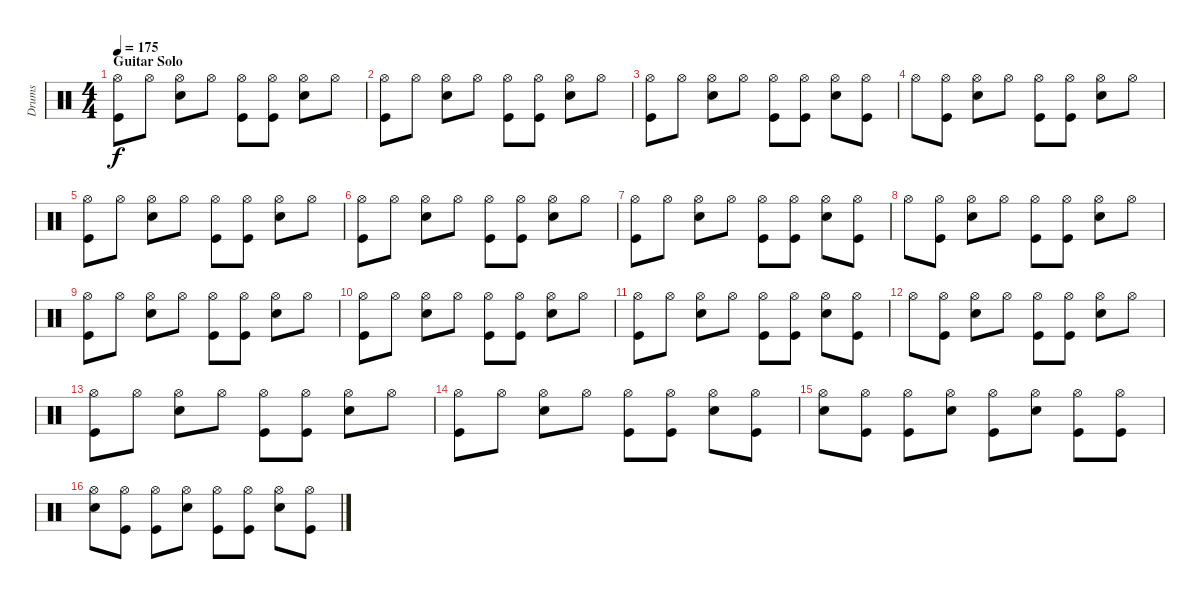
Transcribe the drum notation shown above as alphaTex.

\track ("Drums" "Drums") {instrument percussion}
\staff {score}
\articulation defaults
\ts (4 4)
\section ("" "Guitar Solo")
\tempo 175
\clef neutral
\ks c
("Hi-Hat (open)" "Kick (hit)").8{dy f} "Hi-Hat (open)".8 ("Hi-Hat (open)" "Snare (hit) 2").8 "Hi-Hat (open)".8 ("Hi-Hat (open)" "Kick (hit)").8 ("Hi-Hat (open)" "Kick (hit)").8 ("Hi-Hat (open)" "Snare (hit) 2").8 "Hi-Hat (open)".8 |
("Hi-Hat (open)" "Kick (hit)").8 "Hi-Hat (open)".8 ("Hi-Hat (open)" "Snare (hit) 2").8 "Hi-Hat (open)".8 ("Hi-Hat (open)" "Kick (hit)").8 ("Hi-Hat (open)" "Kick (hit)").8 ("Hi-Hat (open)" "Snare (hit) 2").8 "Hi-Hat (open)".8 |
("Hi-Hat (open)" "Kick (hit)").8 "Hi-Hat (open)".8 ("Hi-Hat (open)" "Snare (hit) 2").8 "Hi-Hat (open)".8 ("Hi-Hat (open)" "Kick (hit)").8 ("Hi-Hat (open)" "Kick (hit)").8 ("Hi-Hat (open)" "Snare (hit) 2").8 ("Hi-Hat (open)" "Kick (hit)").8 |
"Hi-Hat (open)".8 ("Hi-Hat (open)" "Kick (hit)").8 ("Hi-Hat (open)" "Snare (hit) 2").8 "Hi-Hat (open)".8 ("Hi-Hat (open)" "Kick (hit)").8 ("Hi-Hat (open)" "Kick (hit)").8 ("Hi-Hat (open)" "Snare (hit) 2").8 "Hi-Hat (open)".8 |
("Hi-Hat (open)" "Kick (hit)").8 "Hi-Hat (open)".8 ("Hi-Hat (open)" "Snare (hit) 2").8 "Hi-Hat (open)".8 ("Hi-Hat (open)" "Kick (hit)").8 ("Hi-Hat (open)" "Kick (hit)").8 ("Hi-Hat (open)" "Snare (hit) 2").8 "Hi-Hat (open)".8 |
("Hi-Hat (open)" "Kick (hit)").8 "Hi-Hat (open)".8 ("Hi-Hat (open)" "Snare (hit) 2").8 "Hi-Hat (open)".8 ("Hi-Hat (open)" "Kick (hit)").8 ("Hi-Hat (open)" "Kick (hit)").8 ("Hi-Hat (open)" "Snare (hit) 2").8 "Hi-Hat (open)".8 |
("Hi-Hat (open)" "Kick (hit)").8 "Hi-Hat (open)".8 ("Hi-Hat (open)" "Snare (hit) 2").8 "Hi-Hat (open)".8 ("Hi-Hat (open)" "Kick (hit)").8 ("Hi-Hat (open)" "Kick (hit)").8 ("Hi-Hat (open)" "Snare (hit) 2").8 ("Hi-Hat (open)" "Kick (hit)").8 |
"Hi-Hat (open)".8 ("Hi-Hat (open)" "Kick (hit)").8 ("Hi-Hat (open)" "Snare (hit) 2").8 "Hi-Hat (open)".8 ("Hi-Hat (open)" "Kick (hit)").8 ("Hi-Hat (open)" "Kick (hit)").8 ("Hi-Hat (open)" "Snare (hit) 2").8 "Hi-Hat (open)".8 |
("Hi-Hat (open)" "Kick (hit)").8 "Hi-Hat (open)".8 ("Hi-Hat (open)" "Snare (hit) 2").8 "Hi-Hat (open)".8 ("Hi-Hat (open)" "Kick (hit)").8 ("Hi-Hat (open)" "Kick (hit)").8 ("Hi-Hat (open)" "Snare (hit) 2").8 "Hi-Hat (open)".8 |
("Hi-Hat (open)" "Kick (hit)").8 "Hi-Hat (open)".8 ("Hi-Hat (open)" "Snare (hit) 2").8 "Hi-Hat (open)".8 ("Hi-Hat (open)" "Kick (hit)").8 ("Hi-Hat (open)" "Kick (hit)").8 ("Hi-Hat (open)" "Snare (hit) 2").8 "Hi-Hat (open)".8 |
("Hi-Hat (open)" "Kick (hit)").8 "Hi-Hat (open)".8 ("Hi-Hat (open)" "Snare (hit) 2").8 "Hi-Hat (open)".8 ("Hi-Hat (open)" "Kick (hit)").8 ("Hi-Hat (open)" "Kick (hit)").8 ("Hi-Hat (open)" "Snare (hit) 2").8 ("Hi-Hat (open)" "Kick (hit)").8 |
"Hi-Hat (open)".8 ("Hi-Hat (open)" "Kick (hit)").8 ("Hi-Hat (open)" "Snare (hit) 2").8 "Hi-Hat (open)".8 ("Hi-Hat (open)" "Kick (hit)").8 ("Hi-Hat (open)" "Kick (hit)").8 ("Hi-Hat (open)" "Snare (hit) 2").8 "Hi-Hat (open)".8 |
("Hi-Hat (open)" "Kick (hit)").8 "Hi-Hat (open)".8 ("Hi-Hat (open)" "Snare (hit) 2").8 "Hi-Hat (open)".8 ("Hi-Hat (open)" "Kick (hit)").8 ("Hi-Hat (open)" "Kick (hit)").8 ("Hi-Hat (open)" "Snare (hit) 2").8 "Hi-Hat (open)".8 |
("Hi-Hat (open)" "Kick (hit)").8 "Hi-Hat (open)".8 ("Hi-Hat (open)" "Snare (hit) 2").8 "Hi-Hat (open)".8 ("Hi-Hat (open)" "Kick (hit)").8 ("Hi-Hat (open)" "Kick (hit)").8 ("Hi-Hat (open)" "Snare (hit) 2").8 ("Hi-Hat (open)" "Kick (hit)").8 |
("Hi-Hat (open)" "Snare (hit) 2").8 ("Hi-Hat (open)" "Kick (hit)").8 ("Hi-Hat (open)" "Kick (hit)").8 ("Hi-Hat (open)" "Snare (hit) 2").8 ("Hi-Hat (open)" "Kick (hit)").8 ("Hi-Hat (open)" "Snare (hit) 2").8 ("Hi-Hat (open)" "Kick (hit)").8 ("Hi-Hat (open)" "Kick (hit)").8 |
("Hi-Hat (open)" "Snare (hit) 2").8 ("Hi-Hat (open)" "Kick (hit)").8 ("Hi-Hat (open)" "Kick (hit)").8 ("Hi-Hat (open)" "Snare (hit) 2").8 ("Hi-Hat (open)" "Kick (hit)").8 ("Hi-Hat (open)" "Kick (hit)").8 ("Hi-Hat (open)" "Snare (hit) 2").8 ("Hi-Hat (open)" "Kick (hit)").8
